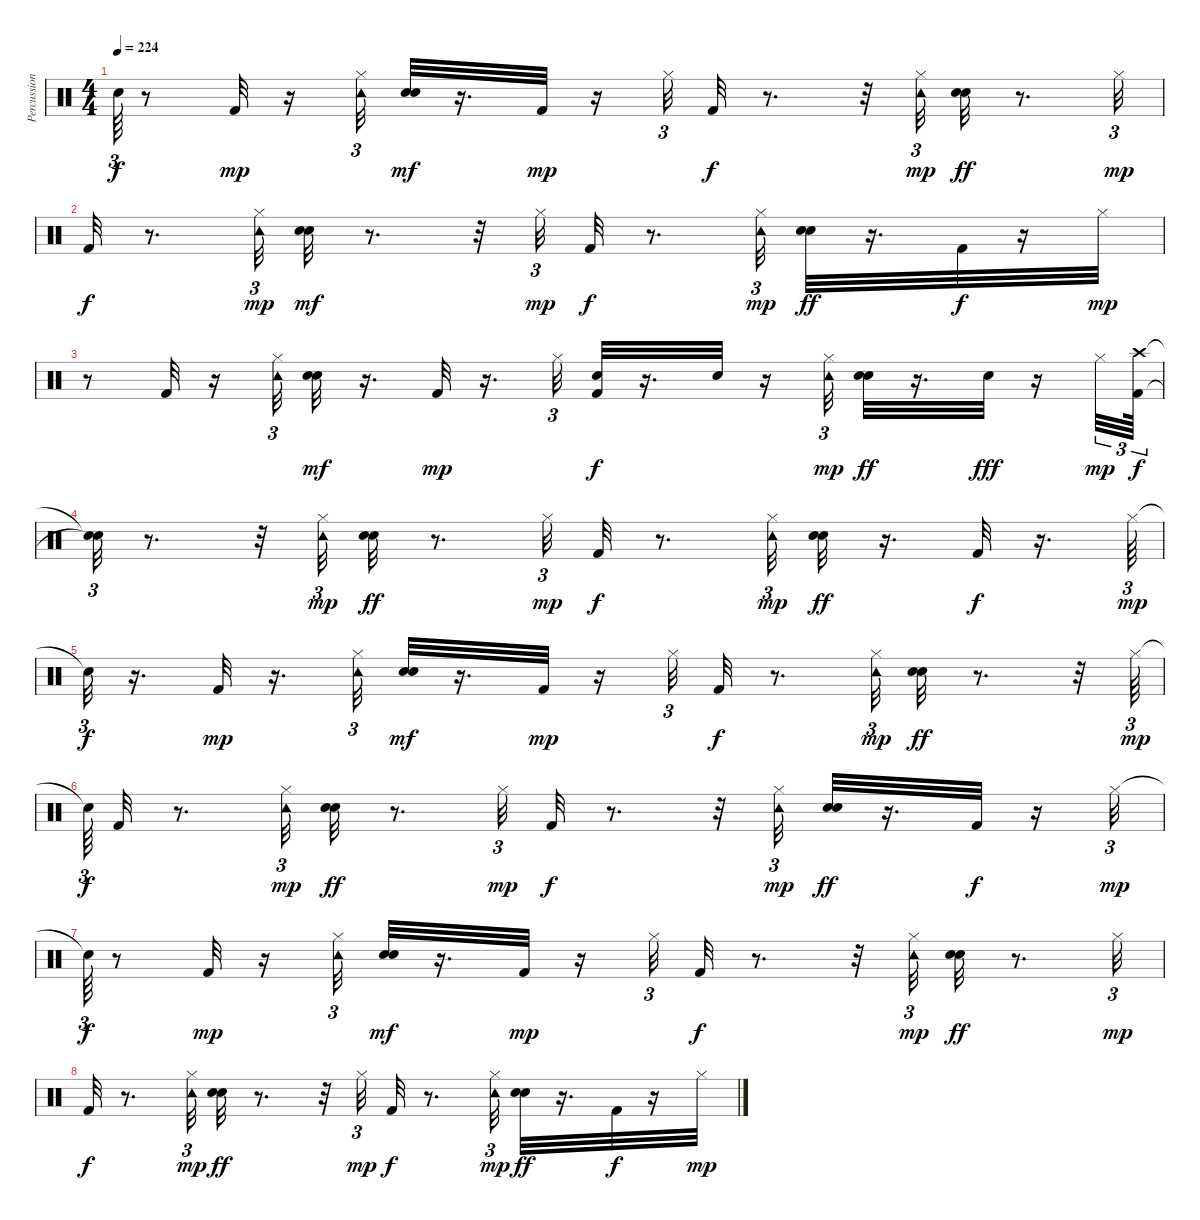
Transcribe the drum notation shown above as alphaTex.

\track ("Percussion" "Percussion") {instrument percussion}
\staff {score}
\articulation defaults
\ts (4 4)
\tempo 224
\clef neutral
\ks c "Snare (hit)"{t}.64{tu (3 2) dy f}
r.8 "Kick (hit) 2".32{dy mp} r.16 ("Tambourine (hit)" "Hi-Hat (closed)").32{tu (3 2)} ("Hand Clap (hit)" "Snare (hit) 2").32{dy mf} r.16{d} "Kick (hit) 2".32{dy mp} r.16 "Hi-Hat (closed)".32{tu (3 2)} "Kick (hit) 2".32{dy f} r.8{d} r.32 ("Tambourine (hit)" "Hi-Hat (closed)").32{tu (3 2) dy mp} ("Hand Clap (hit)" "Snare (hit) 2").32{dy ff} r.8{d} "Hi-Hat (closed)".32{tu (3 2) dy mp} |
"Kick (hit) 2".32{dy f} r.8{d} ("Tambourine (hit)" "Hi-Hat (closed)").32{tu (3 2) dy mp} ("Hand Clap (hit)" "Snare (hit) 2").32{dy mf} r.8{d} r.32 "Hi-Hat (closed)".32{tu (3 2) dy mp} "Kick (hit) 2".32{dy f} r.8{d} ("Tambourine (hit)" "Hi-Hat (closed)").32{tu (3 2) dy mp} ("Hand Clap (hit)" "Snare (hit) 2").32{dy ff} r.16{d} "Kick (hit) 2".32{dy f} r.16 "Hi-Hat (closed)".32{dy mp} |
r.8 "Kick (hit) 2".32 r.16 ("Tambourine (hit)" "Hi-Hat (closed)").32{tu (3 2)} ("Hand Clap (hit)" "Snare (hit) 2").32{dy mf} r.16{d} "Kick (hit) 2".32{dy mp} r.16{d} "Hi-Hat (closed)".32{tu (3 2)} ("Kick (hit) 2" "Snare (hit) 2").32{dy f} r.16{d} "Snare (hit) 2".32 r.16 ("Tambourine (hit)" "Hi-Hat (closed)").32{tu (3 2) dy mp} ("Hand Clap (hit)" "Snare (hit) 2").32{dy ff} r.16{d} "Snare (hit) 2".32{dy fff} r.16 "Hi-Hat (closed)".32{tu (3 2) dy mp} ("Kick (hit) 2" "Crash high (hit)").64{tu (3 2) dy f} |
("Snare (hit)"{t} "Snare (hit)"{t}).32{tu (3 2)} r.8{d} r.32 ("Tambourine (hit)" "Hi-Hat (closed)").32{tu (3 2) dy mp} ("Hand Clap (hit)" "Snare (hit) 2").32{dy ff} r.8{d} "Hi-Hat (closed)".32{tu (3 2) dy mp} "Kick (hit) 2".32{dy f} r.8{d} ("Tambourine (hit)" "Hi-Hat (closed)").32{tu (3 2) dy mp} ("Hand Clap (hit)" "Snare (hit) 2").32{dy ff} r.16{d} "Kick (hit) 2".32{dy f} r.16{d} "Hi-Hat (closed)".64{tu (3 2) dy mp} |
"Snare (hit)"{t}.32{tu (3 2) dy f} r.16{d} "Kick (hit) 2".32{dy mp} r.16{d} ("Tambourine (hit)" "Hi-Hat (closed)").32{tu (3 2)} ("Hand Clap (hit)" "Snare (hit) 2").32{dy mf} r.16{d} "Kick (hit) 2".32{dy mp} r.16 "Hi-Hat (closed)".32{tu (3 2)} "Kick (hit) 2".32{dy f} r.8{d} ("Tambourine (hit)" "Hi-Hat (closed)").32{tu (3 2) dy mp} ("Hand Clap (hit)" "Snare (hit) 2").32{dy ff} r.8{d} r.32 "Hi-Hat (closed)".64{tu (3 2) dy mp} |
"Snare (hit)"{t}.64{tu (3 2) dy f} "Kick (hit) 2".32 r.8{d} ("Tambourine (hit)" "Hi-Hat (closed)").32{tu (3 2) dy mp} ("Hand Clap (hit)" "Snare (hit) 2").32{dy ff} r.8{d} "Hi-Hat (closed)".32{tu (3 2) dy mp} "Kick (hit) 2".32{dy f} r.8{d} r.32 ("Tambourine (hit)" "Hi-Hat (closed)").32{tu (3 2) dy mp} ("Hand Clap (hit)" "Snare (hit) 2").32{dy ff} r.16{d} "Kick (hit) 2".32{dy f} r.16 "Hi-Hat (closed)".32{tu (3 2) dy mp} |
"Snare (hit)"{t}.64{tu (3 2) dy f} r.8 "Kick (hit) 2".32{dy mp} r.16 ("Tambourine (hit)" "Hi-Hat (closed)").32{tu (3 2)} ("Hand Clap (hit)" "Snare (hit) 2").32{dy mf} r.16{d} "Kick (hit) 2".32{dy mp} r.16 "Hi-Hat (closed)".32{tu (3 2)} "Kick (hit) 2".32{dy f} r.8{d} r.32 ("Tambourine (hit)" "Hi-Hat (closed)").32{tu (3 2) dy mp} ("Hand Clap (hit)" "Snare (hit) 2").32{dy ff} r.8{d} "Hi-Hat (closed)".32{tu (3 2) dy mp} |
"Kick (hit) 2".32{dy f} r.8{d} ("Tambourine (hit)" "Hi-Hat (closed)").32{tu (3 2) dy mp} ("Hand Clap (hit)" "Snare (hit) 2").32{dy ff} r.8{d} r.32 "Hi-Hat (closed)".32{tu (3 2) dy mp} "Kick (hit) 2".32{dy f} r.8{d} ("Tambourine (hit)" "Hi-Hat (closed)").32{tu (3 2) dy mp} ("Hand Clap (hit)" "Snare (hit) 2").32{dy ff} r.16{d} "Kick (hit) 2".32{dy f} r.16 "Hi-Hat (closed)".32{dy mp}
